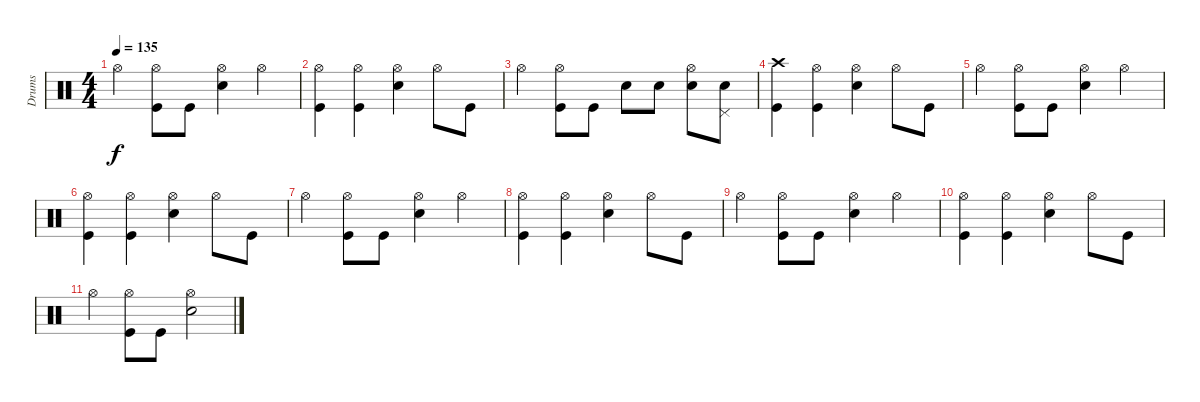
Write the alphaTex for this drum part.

\track ("Drums" "Drums") {instrument percussion}
\staff {score}
\articulation defaults
\ts (4 4)
\tempo 135
\clef neutral
\ks c "Hi-Hat (open)".4{dy f}
("Hi-Hat (open)" "Kick (hit)").8 "Kick (hit)".8 ("Hi-Hat (open)" "Snare (hit) 2").4 "Hi-Hat (open)".4 |
("Hi-Hat (open)" "Kick (hit)").4 ("Hi-Hat (open)" "Kick (hit)").4 ("Hi-Hat (open)" "Snare (hit) 2").4 "Hi-Hat (open)".8 "Kick (hit)".8 |
"Hi-Hat (open)".4 ("Hi-Hat (open)" "Kick (hit)").8 "Kick (hit)".8 "Snare (hit) 2".8 "Snare (hit) 2".8 ("Hi-Hat (open)" "Snare (hit) 2").8 ("Pedal Hi-Hat (hit)" "Snare (hit) 2").8 |
("Crash high (hit)" "Kick (hit)").4 ("Hi-Hat (open)" "Kick (hit)").4 ("Hi-Hat (open)" "Snare (hit) 2").4 "Hi-Hat (open)".8 "Kick (hit)".8 |
"Hi-Hat (open)".4 ("Hi-Hat (open)" "Kick (hit)").8 "Kick (hit)".8 ("Hi-Hat (open)" "Snare (hit) 2").4 "Hi-Hat (open)".4 |
("Hi-Hat (open)" "Kick (hit)").4 ("Hi-Hat (open)" "Kick (hit)").4 ("Hi-Hat (open)" "Snare (hit) 2").4 "Hi-Hat (open)".8 "Kick (hit)".8 |
"Hi-Hat (open)".4 ("Hi-Hat (open)" "Kick (hit)").8 "Kick (hit)".8 ("Hi-Hat (open)" "Snare (hit) 2").4 "Hi-Hat (open)".4 |
("Hi-Hat (open)" "Kick (hit)").4 ("Hi-Hat (open)" "Kick (hit)").4 ("Hi-Hat (open)" "Snare (hit) 2").4 "Hi-Hat (open)".8 "Kick (hit)".8 |
"Hi-Hat (open)".4 ("Hi-Hat (open)" "Kick (hit)").8 "Kick (hit)".8 ("Hi-Hat (open)" "Snare (hit) 2").4 "Hi-Hat (open)".4 |
("Hi-Hat (open)" "Kick (hit)").4 ("Hi-Hat (open)" "Kick (hit)").4 ("Hi-Hat (open)" "Snare (hit) 2").4 "Hi-Hat (open)".8 "Kick (hit)".8 |
"Hi-Hat (open)".4 ("Hi-Hat (open)" "Kick (hit)").8 "Kick (hit)".8 ("Hi-Hat (open)" "Snare (hit) 2").2
